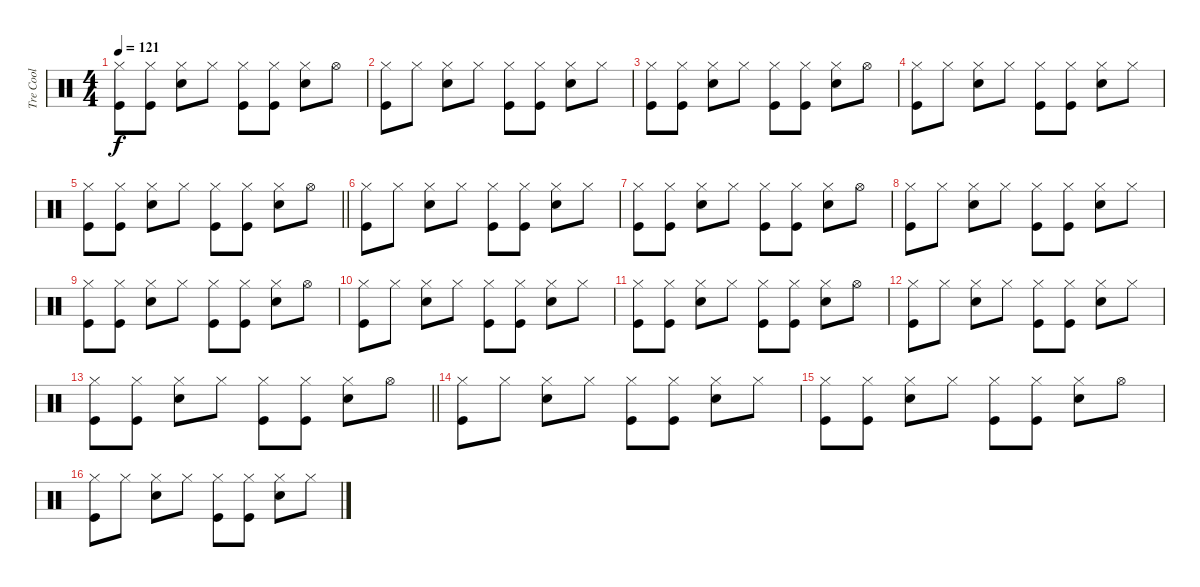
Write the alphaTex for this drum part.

\track ("Tre Cool" "Tre Cool") {instrument percussion}
\staff {score}
\articulation defaults
\ts (4 4)
\tempo 121
\clef neutral
\ks c
("Hi-Hat (closed)" "Kick (hit)").8{dy f} ("Hi-Hat (closed)" "Kick (hit)").8 ("Hi-Hat (closed)" "Snare (hit) 2").8 "Hi-Hat (closed)".8 ("Hi-Hat (closed)" "Kick (hit)").8 ("Hi-Hat (closed)" "Kick (hit)").8 ("Hi-Hat (closed)" "Snare (hit) 2").8 "Hi-Hat (open)".8 |
("Hi-Hat (closed)" "Kick (hit)").8 "Hi-Hat (closed)".8 ("Hi-Hat (closed)" "Snare (hit) 2").8 "Hi-Hat (closed)".8 ("Hi-Hat (closed)" "Kick (hit)").8 ("Hi-Hat (closed)" "Kick (hit)").8 ("Hi-Hat (closed)" "Snare (hit) 2").8 "Hi-Hat (closed)".8 |
("Hi-Hat (closed)" "Kick (hit)").8 ("Hi-Hat (closed)" "Kick (hit)").8 ("Hi-Hat (closed)" "Snare (hit) 2").8 "Hi-Hat (closed)".8 ("Hi-Hat (closed)" "Kick (hit)").8 ("Hi-Hat (closed)" "Kick (hit)").8 ("Hi-Hat (closed)" "Snare (hit) 2").8 "Hi-Hat (open)".8 |
("Hi-Hat (closed)" "Kick (hit)").8 "Hi-Hat (closed)".8 ("Hi-Hat (closed)" "Snare (hit) 2").8 "Hi-Hat (closed)".8 ("Hi-Hat (closed)" "Kick (hit)").8 ("Hi-Hat (closed)" "Kick (hit)").8 ("Hi-Hat (closed)" "Snare (hit) 2").8 "Hi-Hat (closed)".8 |
\barLineRight lightlight
("Hi-Hat (closed)" "Kick (hit)").8 ("Hi-Hat (closed)" "Kick (hit)").8 ("Hi-Hat (closed)" "Snare (hit) 2").8 "Hi-Hat (closed)".8 ("Hi-Hat (closed)" "Kick (hit)").8 ("Hi-Hat (closed)" "Kick (hit)").8 ("Hi-Hat (closed)" "Snare (hit) 2").8 "Hi-Hat (open)".8 |
("Hi-Hat (closed)" "Kick (hit)").8 "Hi-Hat (closed)".8 ("Hi-Hat (closed)" "Snare (hit) 2").8 "Hi-Hat (closed)".8 ("Hi-Hat (closed)" "Kick (hit)").8 ("Hi-Hat (closed)" "Kick (hit)").8 ("Hi-Hat (closed)" "Snare (hit) 2").8 "Hi-Hat (closed)".8 |
("Hi-Hat (closed)" "Kick (hit)").8 ("Hi-Hat (closed)" "Kick (hit)").8 ("Hi-Hat (closed)" "Snare (hit) 2").8 "Hi-Hat (closed)".8 ("Hi-Hat (closed)" "Kick (hit)").8 ("Hi-Hat (closed)" "Kick (hit)").8 ("Hi-Hat (closed)" "Snare (hit) 2").8 "Hi-Hat (open)".8 |
("Hi-Hat (closed)" "Kick (hit)").8 "Hi-Hat (closed)".8 ("Hi-Hat (closed)" "Snare (hit) 2").8 "Hi-Hat (closed)".8 ("Hi-Hat (closed)" "Kick (hit)").8 ("Hi-Hat (closed)" "Kick (hit)").8 ("Hi-Hat (closed)" "Snare (hit) 2").8 "Hi-Hat (closed)".8 |
("Hi-Hat (closed)" "Kick (hit)").8 ("Hi-Hat (closed)" "Kick (hit)").8 ("Hi-Hat (closed)" "Snare (hit) 2").8 "Hi-Hat (closed)".8 ("Hi-Hat (closed)" "Kick (hit)").8 ("Hi-Hat (closed)" "Kick (hit)").8 ("Hi-Hat (closed)" "Snare (hit) 2").8 "Hi-Hat (open)".8 |
("Hi-Hat (closed)" "Kick (hit)").8 "Hi-Hat (closed)".8 ("Hi-Hat (closed)" "Snare (hit) 2").8 "Hi-Hat (closed)".8 ("Hi-Hat (closed)" "Kick (hit)").8 ("Hi-Hat (closed)" "Kick (hit)").8 ("Hi-Hat (closed)" "Snare (hit) 2").8 "Hi-Hat (closed)".8 |
("Hi-Hat (closed)" "Kick (hit)").8 ("Hi-Hat (closed)" "Kick (hit)").8 ("Hi-Hat (closed)" "Snare (hit) 2").8 "Hi-Hat (closed)".8 ("Hi-Hat (closed)" "Kick (hit)").8 ("Hi-Hat (closed)" "Kick (hit)").8 ("Hi-Hat (closed)" "Snare (hit) 2").8 "Hi-Hat (open)".8 |
("Hi-Hat (closed)" "Kick (hit)").8 "Hi-Hat (closed)".8 ("Hi-Hat (closed)" "Snare (hit) 2").8 "Hi-Hat (closed)".8 ("Hi-Hat (closed)" "Kick (hit)").8 ("Hi-Hat (closed)" "Kick (hit)").8 ("Hi-Hat (closed)" "Snare (hit) 2").8 "Hi-Hat (closed)".8 |
\barLineRight lightlight
("Hi-Hat (closed)" "Kick (hit)").8 ("Hi-Hat (closed)" "Kick (hit)").8 ("Hi-Hat (closed)" "Snare (hit) 2").8 "Hi-Hat (closed)".8 ("Hi-Hat (closed)" "Kick (hit)").8 ("Hi-Hat (closed)" "Kick (hit)").8 ("Hi-Hat (closed)" "Snare (hit) 2").8 "Hi-Hat (open)".8 |
("Hi-Hat (closed)" "Kick (hit)").8 "Hi-Hat (closed)".8 ("Hi-Hat (closed)" "Snare (hit) 2").8 "Hi-Hat (closed)".8 ("Hi-Hat (closed)" "Kick (hit)").8 ("Hi-Hat (closed)" "Kick (hit)").8 ("Hi-Hat (closed)" "Snare (hit) 2").8 "Hi-Hat (closed)".8 |
("Hi-Hat (closed)" "Kick (hit)").8 ("Hi-Hat (closed)" "Kick (hit)").8 ("Hi-Hat (closed)" "Snare (hit) 2").8 "Hi-Hat (closed)".8 ("Hi-Hat (closed)" "Kick (hit)").8 ("Hi-Hat (closed)" "Kick (hit)").8 ("Hi-Hat (closed)" "Snare (hit) 2").8 "Hi-Hat (open)".8 |
("Hi-Hat (closed)" "Kick (hit)").8 "Hi-Hat (closed)".8 ("Hi-Hat (closed)" "Snare (hit) 2").8 "Hi-Hat (closed)".8 ("Hi-Hat (closed)" "Kick (hit)").8 ("Hi-Hat (closed)" "Kick (hit)").8 ("Hi-Hat (closed)" "Snare (hit) 2").8 "Hi-Hat (closed)".8
